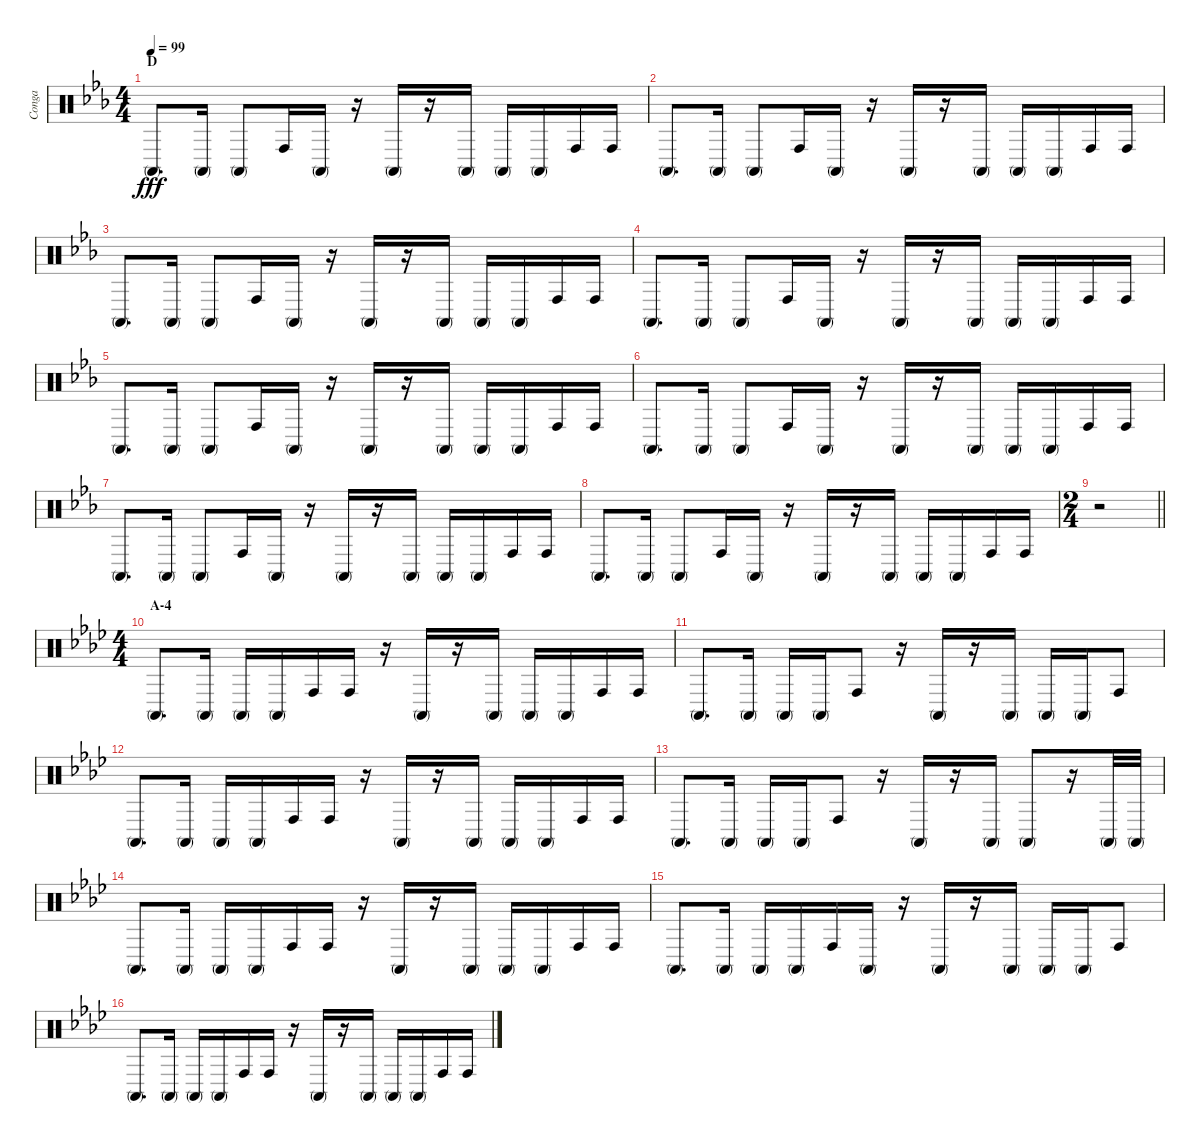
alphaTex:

\track ("Conga" "Conga") {instrument percussion}
\staff {score}
\articulation defaults
\ts (4 4)
\section ("" "D")
\tempo 99
\clef neutral
\ks eb "Conga high (mute)".8{d dy fff} "Conga high (mute)".16 "Conga high (mute)".8 "Conga high (hit)".16 "Conga high (mute)".16
r.16 "Conga high (mute)".16 r.16 "Conga high (mute)".16 "Conga high (mute)".16 "Conga high (mute)".16 "Conga high (hit)".16 "Conga high (hit)".16 |
"Conga high (mute)".8{d} "Conga high (mute)".16 "Conga high (mute)".8 "Conga high (hit)".16 "Conga high (mute)".16 r.16 "Conga high (mute)".16 r.16 "Conga high (mute)".16 "Conga high (mute)".16 "Conga high (mute)".16 "Conga high (hit)".16 "Conga high (hit)".16 |
"Conga high (mute)".8{d} "Conga high (mute)".16 "Conga high (mute)".8 "Conga high (hit)".16 "Conga high (mute)".16 r.16 "Conga high (mute)".16 r.16 "Conga high (mute)".16 "Conga high (mute)".16 "Conga high (mute)".16 "Conga high (hit)".16 "Conga high (hit)".16 |
"Conga high (mute)".8{d} "Conga high (mute)".16 "Conga high (mute)".8 "Conga high (hit)".16 "Conga high (mute)".16 r.16 "Conga high (mute)".16 r.16 "Conga high (mute)".16 "Conga high (mute)".16 "Conga high (mute)".16 "Conga high (hit)".16 "Conga high (hit)".16 |
"Conga high (mute)".8{d} "Conga high (mute)".16 "Conga high (mute)".8 "Conga high (hit)".16 "Conga high (mute)".16 r.16 "Conga high (mute)".16 r.16 "Conga high (mute)".16 "Conga high (mute)".16 "Conga high (mute)".16 "Conga high (hit)".16 "Conga high (hit)".16 |
"Conga high (mute)".8{d} "Conga high (mute)".16 "Conga high (mute)".8 "Conga high (hit)".16 "Conga high (mute)".16 r.16 "Conga high (mute)".16 r.16 "Conga high (mute)".16 "Conga high (mute)".16 "Conga high (mute)".16 "Conga high (hit)".16 "Conga high (hit)".16 |
"Conga high (mute)".8{d} "Conga high (mute)".16 "Conga high (mute)".8 "Conga high (hit)".16 "Conga high (mute)".16 r.16 "Conga high (mute)".16 r.16 "Conga high (mute)".16 "Conga high (mute)".16 "Conga high (mute)".16 "Conga high (hit)".16 "Conga high (hit)".16 |
"Conga high (mute)".8{d} "Conga high (mute)".16 "Conga high (mute)".8 "Conga high (hit)".16 "Conga high (mute)".16 r.16 "Conga high (mute)".16 r.16 "Conga high (mute)".16 "Conga high (mute)".16 "Conga high (mute)".16 "Conga high (hit)".16 "Conga high (hit)".16 |
\ts (2 4)
\barLineRight lightlight
r.2 |
\ts (4 4)
\section ("" "A-4")
\ks ab "Conga high (mute)".8{d} "Conga high (mute)".16 "Conga high (mute)".16 "Conga high (mute)".16 "Conga high (hit)".16 "Conga high (hit)".16
r.16 "Conga high (mute)".16 r.16 "Conga high (mute)".16 "Conga high (mute)".16 "Conga high (mute)".16 "Conga high (hit)".16 "Conga high (hit)".16 |
"Conga high (mute)".8{d} "Conga high (mute)".16 "Conga high (mute)".16 "Conga high (mute)".16 "Conga high (hit)".8 r.16 "Conga high (mute)".16 r.16 "Conga high (mute)".16 "Conga high (mute)".16 "Conga high (mute)".16 "Conga high (hit)".8 |
"Conga high (mute)".8{d} "Conga high (mute)".16 "Conga high (mute)".16 "Conga high (mute)".16 "Conga high (hit)".16 "Conga high (hit)".16 r.16 "Conga high (mute)".16 r.16 "Conga high (mute)".16 "Conga high (mute)".16 "Conga high (mute)".16 "Conga high (hit)".16 "Conga high (hit)".16 |
"Conga high (mute)".8{d} "Conga high (mute)".16 "Conga high (mute)".16 "Conga high (mute)".16 "Conga high (hit)".8 r.16 "Conga high (mute)".16 r.16 "Conga high (mute)".16 "Conga high (mute)".8 r.16 "Conga high (mute)".32 "Conga high (mute)".32 |
"Conga high (mute)".8{d} "Conga high (mute)".16 "Conga high (mute)".16 "Conga high (mute)".16 "Conga high (hit)".16 "Conga high (hit)".16 r.16 "Conga high (mute)".16 r.16 "Conga high (mute)".16 "Conga high (mute)".16 "Conga high (mute)".16 "Conga high (hit)".16 "Conga high (hit)".16 |
"Conga high (mute)".8{d} "Conga high (mute)".16 "Conga high (mute)".16 "Conga high (mute)".16 "Conga high (hit)".16 "Conga high (mute)".16 r.16 "Conga high (mute)".16 r.16 "Conga high (mute)".16 "Conga high (mute)".16 "Conga high (mute)".16 "Conga high (hit)".8 |
"Conga high (mute)".8{d} "Conga high (mute)".16 "Conga high (mute)".16 "Conga high (mute)".16 "Conga high (hit)".16 "Conga high (hit)".16 r.16 "Conga high (mute)".16 r.16 "Conga high (mute)".16 "Conga high (mute)".16 "Conga high (mute)".16 "Conga high (hit)".16 "Conga high (hit)".16
